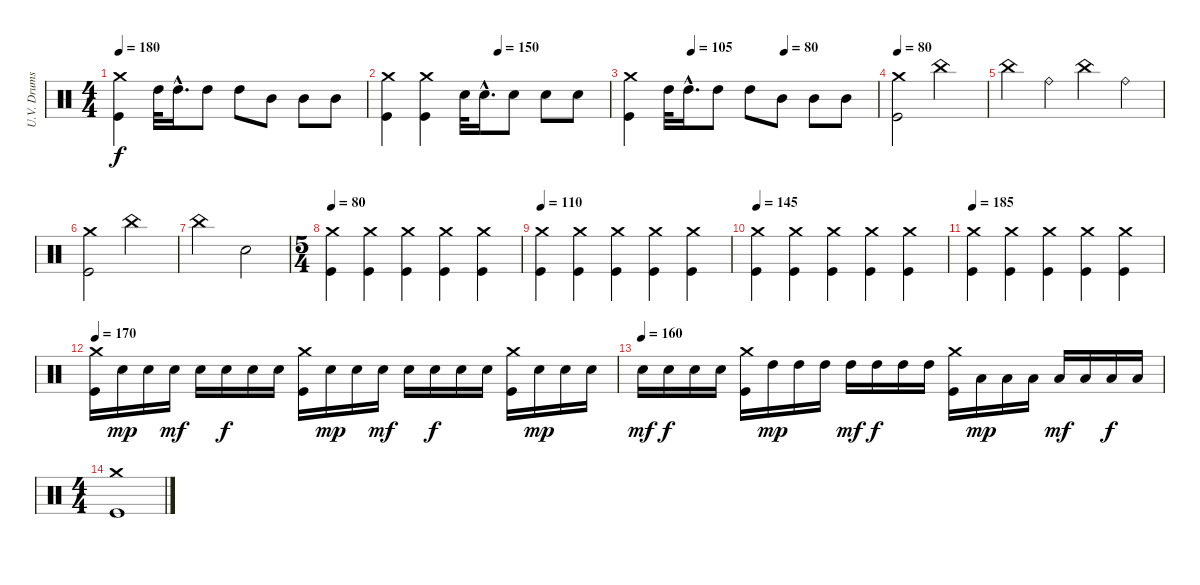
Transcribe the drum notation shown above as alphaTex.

\track ("U.V. Drums" "U.V. Drums") {instrument percussion}
\staff {score}
\articulation defaults
\ts (4 4)
\tempo 180
\clef neutral
\ks c
("Crash medium (hit)" "Kick (hit)").4{dy f} "High Tom (hit)".32 "High Tom (hit)"{hac}.16{d} "High Tom (hit)".8 "High Tom (hit)".8 "Mid Tom (hit)".8 "Mid Tom (hit)".8 "Mid Tom (hit)".8 |
\tempo (150 0.5)
("Crash medium (hit)" "Kick (hit)").4 ("Crash medium (hit)" "Kick (hit)").4 "Electric Snare (hit)".32 "Electric Snare (hit)"{hac}.16{d} "Electric Snare (hit)".8 "Electric Snare (hit)".8 "Electric Snare (hit)".8 |
\tempo (105 0.25)
\tempo (80 0.625)
("Crash medium (hit)" "Kick (hit)").4 "High Tom (hit)".32 "High Tom (hit)"{hac}.16{d} "High Tom (hit)".8 "High Tom (hit)".8 "Mid Tom (hit)".8 "Mid Tom (hit)".8 "Mid Tom (hit)".8 |
\tempo 80
("Crash medium (hit)" "Kick (hit)").2 "China (hit)".2 |
"China (hit)".4 "Ride (bell)".4 "China (hit)".4 "Ride (bell)".4 |
("Crash medium (hit)" "Kick (hit)").2 "China (hit)".2 |
"China (hit)".2 "Electric Snare (hit)".2 |
\ts (5 4)
\tempo 80
("Crash medium (hit)" "Kick (hit)").4 ("Crash medium (hit)" "Kick (hit)").4 ("Crash medium (hit)" "Kick (hit)").4 ("Crash medium (hit)" "Kick (hit)").4 ("Crash medium (hit)" "Kick (hit)").4 |
\tempo 110
("Crash medium (hit)" "Kick (hit)").4 ("Crash medium (hit)" "Kick (hit)").4 ("Crash medium (hit)" "Kick (hit)").4 ("Crash medium (hit)" "Kick (hit)").4 ("Crash medium (hit)" "Kick (hit)").4 |
\tempo 145
("Crash medium (hit)" "Kick (hit)").4 ("Crash medium (hit)" "Kick (hit)").4 ("Crash medium (hit)" "Kick (hit)").4 ("Crash medium (hit)" "Kick (hit)").4 ("Crash medium (hit)" "Kick (hit)").4 |
\tempo 185
("Crash medium (hit)" "Kick (hit)").4 ("Crash medium (hit)" "Kick (hit)").4 ("Crash medium (hit)" "Kick (hit)").4 ("Crash medium (hit)" "Kick (hit)").4 ("Crash medium (hit)" "Kick (hit)").4 |
\tempo 170
("Crash medium (hit)" "Kick (hit)").16 "Electric Snare (hit)".16{dy mp} "Electric Snare (hit)".16 "Electric Snare (hit)".16{dy mf} "Electric Snare (hit)".16 "Electric Snare (hit)".16{dy f} "Electric Snare (hit)".16 "Electric Snare (hit)".16 ("Crash medium (hit)" "Kick (hit)").16 "Electric Snare (hit)".16{dy mp} "Electric Snare (hit)".16 "Electric Snare (hit)".16{dy mf} "Electric Snare (hit)".16 "Electric Snare (hit)".16{dy f} "Electric Snare (hit)".16 "Electric Snare (hit)".16 ("Crash medium (hit)" "Kick (hit)").16 "Electric Snare (hit)".16{dy mp} "Electric Snare (hit)".16 "Electric Snare (hit)".16 |
\tempo (160)
"Electric Snare (hit)".16{dy mf} "Electric Snare (hit)".16{dy f} "Electric Snare (hit)".16 "Electric Snare (hit)".16 ("Crash medium (hit)" "Kick (hit)").16 "High Tom (hit)".16{dy mp} "High Tom (hit)".16 "High Tom (hit)".16 "High Tom (hit)".16{dy mf} "High Tom (hit)".16{dy f} "High Tom (hit)".16 "High Tom (hit)".16 ("Crash medium (hit)" "Kick (hit)").16 "Low Tom (hit)".16{dy mp} "Low Tom (hit)".16 "Low Tom (hit)".16 "Low Tom (hit)".16{dy mf} "Low Tom (hit)".16 "Low Tom (hit)".16{dy f} "Low Tom (hit)".16 |
\ts (4 4)
("Crash medium (hit)" "Kick (hit)").1
